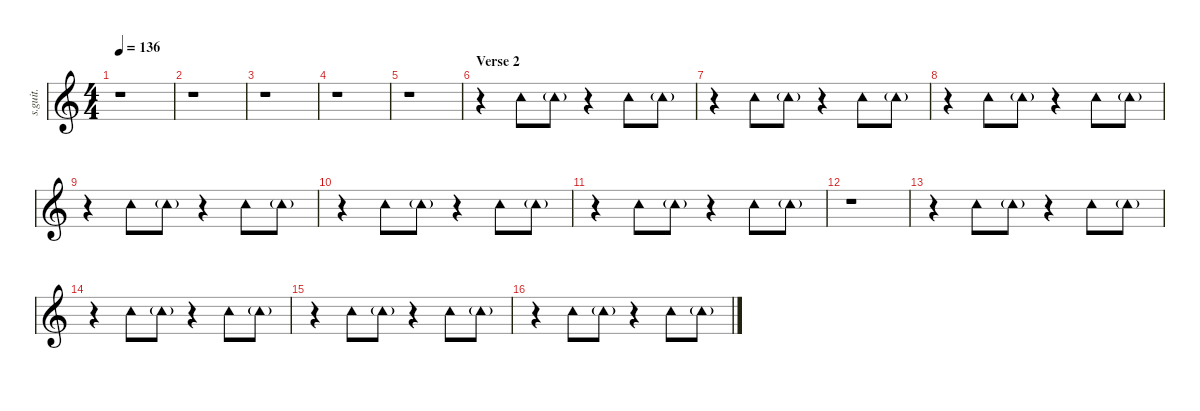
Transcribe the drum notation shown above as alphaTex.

\defaultSystemsLayout 4
\hideDynamics
\bracketExtendMode nobrackets
\track ("Tambourine" "s.guit.") {instrument percussion}
\staff {score}
\articulation defaults
\ts (4 4)
\tempo 136
\clef g2
\ks c
r.1{dy mf} |
r.1 |
r.1 |
r.1 |
r.1 |
\section ("" "Verse 2")
r.4 "Tambourine (hit)".8{lyrics (0 "") lyrics (1 "") lyrics (2 "") lyrics (3 "") lyrics (4 "")} "Tambourine (hit)"{g}.8{lyrics (0 "") lyrics (1 "") lyrics (2 "") lyrics (3 "") lyrics (4 "")} r.4 "Tambourine (hit)".8{lyrics (0 "") lyrics (1 "") lyrics (2 "") lyrics (3 "") lyrics (4 "")} "Tambourine (hit)"{g}.8{lyrics (0 "") lyrics (1 "") lyrics (2 "") lyrics (3 "") lyrics (4 "")} |
r.4 "Tambourine (hit)".8{lyrics (0 "") lyrics (1 "") lyrics (2 "") lyrics (3 "") lyrics (4 "")} "Tambourine (hit)"{g}.8{lyrics (0 "") lyrics (1 "") lyrics (2 "") lyrics (3 "") lyrics (4 "")} r.4 "Tambourine (hit)".8{lyrics (0 "") lyrics (1 "") lyrics (2 "") lyrics (3 "") lyrics (4 "")} "Tambourine (hit)"{g}.8{lyrics (0 "") lyrics (1 "") lyrics (2 "") lyrics (3 "") lyrics (4 "")} |
r.4 "Tambourine (hit)".8{lyrics (0 "") lyrics (1 "") lyrics (2 "") lyrics (3 "") lyrics (4 "")} "Tambourine (hit)"{g}.8{lyrics (0 "") lyrics (1 "") lyrics (2 "") lyrics (3 "") lyrics (4 "")} r.4 "Tambourine (hit)".8{lyrics (0 "") lyrics (1 "") lyrics (2 "") lyrics (3 "") lyrics (4 "")} "Tambourine (hit)"{g}.8{lyrics (0 "") lyrics (1 "") lyrics (2 "") lyrics (3 "") lyrics (4 "")} |
r.4 "Tambourine (hit)".8{lyrics (0 "") lyrics (1 "") lyrics (2 "") lyrics (3 "") lyrics (4 "")} "Tambourine (hit)"{g}.8{lyrics (0 "") lyrics (1 "") lyrics (2 "") lyrics (3 "") lyrics (4 "")} r.4 "Tambourine (hit)".8{lyrics (0 "") lyrics (1 "") lyrics (2 "") lyrics (3 "") lyrics (4 "")} "Tambourine (hit)"{g}.8{lyrics (0 "") lyrics (1 "") lyrics (2 "") lyrics (3 "") lyrics (4 "")} |
r.4 "Tambourine (hit)".8{lyrics (0 "") lyrics (1 "") lyrics (2 "") lyrics (3 "") lyrics (4 "")} "Tambourine (hit)"{g}.8{lyrics (0 "") lyrics (1 "") lyrics (2 "") lyrics (3 "") lyrics (4 "")} r.4 "Tambourine (hit)".8{lyrics (0 "") lyrics (1 "") lyrics (2 "") lyrics (3 "") lyrics (4 "")} "Tambourine (hit)"{g}.8{lyrics (0 "") lyrics (1 "") lyrics (2 "") lyrics (3 "") lyrics (4 "")} |
r.4 "Tambourine (hit)".8{lyrics (0 "") lyrics (1 "") lyrics (2 "") lyrics (3 "") lyrics (4 "")} "Tambourine (hit)"{g}.8{lyrics (0 "") lyrics (1 "") lyrics (2 "") lyrics (3 "") lyrics (4 "")} r.4 "Tambourine (hit)".8{lyrics (0 "") lyrics (1 "") lyrics (2 "") lyrics (3 "") lyrics (4 "")} "Tambourine (hit)"{g}.8{lyrics (0 "") lyrics (1 "") lyrics (2 "") lyrics (3 "") lyrics (4 "")} |
r.1 |
r.4 "Tambourine (hit)".8{lyrics (0 "") lyrics (1 "") lyrics (2 "") lyrics (3 "") lyrics (4 "")} "Tambourine (hit)"{g}.8{lyrics (0 "") lyrics (1 "") lyrics (2 "") lyrics (3 "") lyrics (4 "")} r.4 "Tambourine (hit)".8{lyrics (0 "") lyrics (1 "") lyrics (2 "") lyrics (3 "") lyrics (4 "")} "Tambourine (hit)"{g}.8{lyrics (0 "") lyrics (1 "") lyrics (2 "") lyrics (3 "") lyrics (4 "")} |
r.4 "Tambourine (hit)".8{lyrics (0 "") lyrics (1 "") lyrics (2 "") lyrics (3 "") lyrics (4 "")} "Tambourine (hit)"{g}.8{lyrics (0 "") lyrics (1 "") lyrics (2 "") lyrics (3 "") lyrics (4 "")} r.4 "Tambourine (hit)".8{lyrics (0 "") lyrics (1 "") lyrics (2 "") lyrics (3 "") lyrics (4 "")} "Tambourine (hit)"{g}.8{lyrics (0 "") lyrics (1 "") lyrics (2 "") lyrics (3 "") lyrics (4 "")} |
r.4 "Tambourine (hit)".8{lyrics (0 "") lyrics (1 "") lyrics (2 "") lyrics (3 "") lyrics (4 "")} "Tambourine (hit)"{g}.8{lyrics (0 "") lyrics (1 "") lyrics (2 "") lyrics (3 "") lyrics (4 "")} r.4 "Tambourine (hit)".8{lyrics (0 "") lyrics (1 "") lyrics (2 "") lyrics (3 "") lyrics (4 "")} "Tambourine (hit)"{g}.8{lyrics (0 "") lyrics (1 "") lyrics (2 "") lyrics (3 "") lyrics (4 "")} |
r.4 "Tambourine (hit)".8{lyrics (0 "") lyrics (1 "") lyrics (2 "") lyrics (3 "") lyrics (4 "")} "Tambourine (hit)"{g}.8{lyrics (0 "") lyrics (1 "") lyrics (2 "") lyrics (3 "") lyrics (4 "")} r.4 "Tambourine (hit)".8{lyrics (0 "") lyrics (1 "") lyrics (2 "") lyrics (3 "") lyrics (4 "")} "Tambourine (hit)"{g}.8{lyrics (0 "") lyrics (1 "") lyrics (2 "") lyrics (3 "") lyrics (4 "")}
